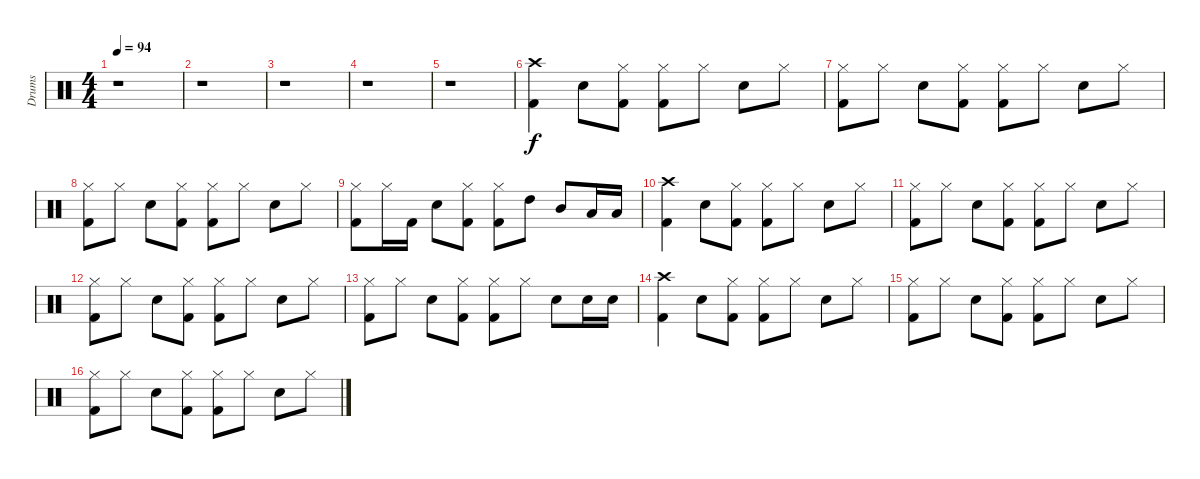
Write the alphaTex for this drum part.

\track ("Drums" "Drums") {instrument percussion}
\staff {score}
\articulation defaults
\ts (4 4)
\tempo 94
\clef neutral
\ks c
r.1{dy f} |
r.1 |
r.1 |
r.1 |
r.1 |
("Crash high (hit)" "Kick (hit) 2").4 "Snare (hit) 2".8 ("Hi-Hat (closed)" "Kick (hit) 2").8 ("Hi-Hat (closed)" "Kick (hit) 2").8 "Hi-Hat (closed)".8 "Snare (hit) 2".8 "Hi-Hat (closed)".8 |
("Hi-Hat (closed)" "Kick (hit) 2").8 "Hi-Hat (closed)".8 "Snare (hit) 2".8 ("Hi-Hat (closed)" "Kick (hit) 2").8 ("Hi-Hat (closed)" "Kick (hit) 2").8 "Hi-Hat (closed)".8 "Snare (hit) 2".8 "Hi-Hat (closed)".8 |
("Hi-Hat (closed)" "Kick (hit) 2").8 "Hi-Hat (closed)".8 "Snare (hit) 2".8 ("Hi-Hat (closed)" "Kick (hit) 2").8 ("Hi-Hat (closed)" "Kick (hit) 2").8 "Hi-Hat (closed)".8 "Snare (hit) 2".8 "Hi-Hat (closed)".8 |
("Hi-Hat (closed)" "Kick (hit) 2").8 "Hi-Hat (closed)".16 "Kick (hit) 2".16 "Snare (hit) 2".8 ("Hi-Hat (closed)" "Kick (hit) 2").8 ("Hi-Hat (closed)" "Kick (hit) 2").8 "High Tom (hit)".8 "Mid Tom (hit)".8 "Low Tom (hit)".16 "Low Tom (hit)".16 |
("Crash high (hit)" "Kick (hit) 2").4 "Snare (hit) 2".8 ("Hi-Hat (closed)" "Kick (hit) 2").8 ("Hi-Hat (closed)" "Kick (hit) 2").8 "Hi-Hat (closed)".8 "Snare (hit) 2".8 "Hi-Hat (closed)".8 |
("Hi-Hat (closed)" "Kick (hit) 2").8 "Hi-Hat (closed)".8 "Snare (hit) 2".8 ("Hi-Hat (closed)" "Kick (hit) 2").8 ("Hi-Hat (closed)" "Kick (hit) 2").8 "Hi-Hat (closed)".8 "Snare (hit) 2".8 "Hi-Hat (closed)".8 |
("Hi-Hat (closed)" "Kick (hit) 2").8 "Hi-Hat (closed)".8 "Snare (hit) 2".8 ("Hi-Hat (closed)" "Kick (hit) 2").8 ("Hi-Hat (closed)" "Kick (hit) 2").8 "Hi-Hat (closed)".8 "Snare (hit) 2".8 "Hi-Hat (closed)".8 |
("Hi-Hat (closed)" "Kick (hit) 2").8 "Hi-Hat (closed)".8 "Snare (hit) 2".8 ("Hi-Hat (closed)" "Kick (hit) 2").8 ("Hi-Hat (closed)" "Kick (hit) 2").8 "Hi-Hat (closed)".8 "Snare (hit) 2".8 "Snare (hit) 2".16 "Snare (hit) 2".16 |
("Crash high (hit)" "Kick (hit) 2").4 "Snare (hit) 2".8 ("Hi-Hat (closed)" "Kick (hit) 2").8 ("Hi-Hat (closed)" "Kick (hit) 2").8 "Hi-Hat (closed)".8 "Snare (hit) 2".8 "Hi-Hat (closed)".8 |
("Hi-Hat (closed)" "Kick (hit) 2").8 "Hi-Hat (closed)".8 "Snare (hit) 2".8 ("Hi-Hat (closed)" "Kick (hit) 2").8 ("Hi-Hat (closed)" "Kick (hit) 2").8 "Hi-Hat (closed)".8 "Snare (hit) 2".8 "Hi-Hat (closed)".8 |
("Hi-Hat (closed)" "Kick (hit) 2").8 "Hi-Hat (closed)".8 "Snare (hit) 2".8 ("Hi-Hat (closed)" "Kick (hit) 2").8 ("Hi-Hat (closed)" "Kick (hit) 2").8 "Hi-Hat (closed)".8 "Snare (hit) 2".8 "Hi-Hat (closed)".8
